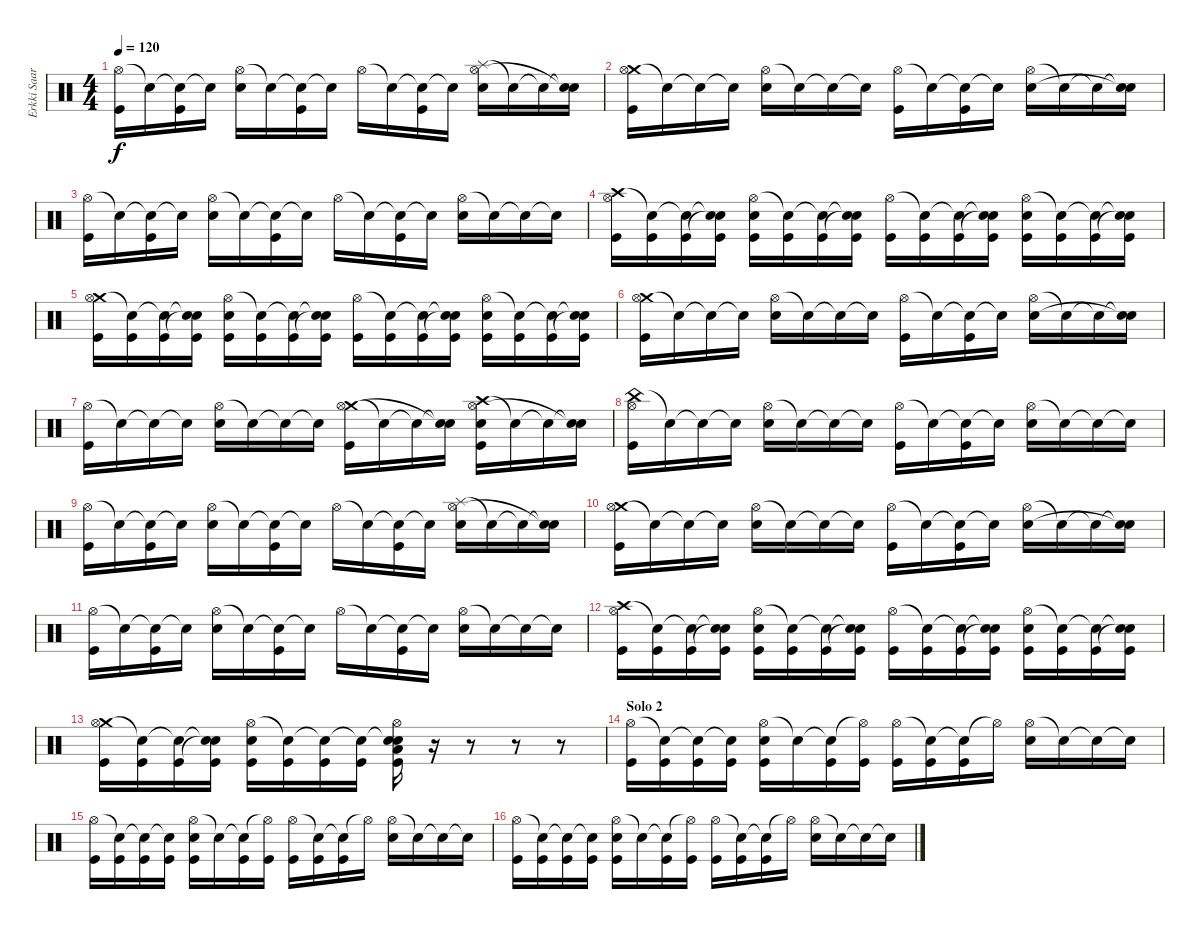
\track ("Erkki Saarinen" "Erkki Saar") {instrument percussion}
\staff {score}
\articulation defaults
\ts (4 4)
\tempo 120
\clef neutral
\ks c
("Hi-Hat (open)" "Kick (hit)").16{dy f} "Snare (hit)"{t}.16 ("Snare (hit)"{t} "Kick (hit)").16 "Snare (hit)"{t}.16 ("Hi-Hat (open)" "Snare (hit) 2").16 "Snare (hit)"{t}.16 ("Snare (hit)"{t} "Kick (hit)").16 "Snare (hit)"{t}.16 "Hi-Hat (open)".16 "Snare (hit)"{t}.16 ("Snare (hit)"{t} "Kick (hit)").16 "Snare (hit)"{t}.16 ("Splash (hit)" "Hi-Hat (open)" "Snare (hit) 2").16 "Snare (hit)"{t}.16 "Snare (hit)"{t}.16 ("Snare (hit)"{t} "Snare (hit)"{t}).16 |
("Crash medium (hit)" "Hi-Hat (open)" "Kick (hit)").16 "Snare (hit)"{t}.16 "Snare (hit)"{t}.16 "Snare (hit)"{t}.16 ("Hi-Hat (open)" "Snare (hit) 2").16 "Snare (hit)"{t}.16 "Snare (hit)"{t}.16 "Snare (hit)"{t}.16 ("Hi-Hat (open)" "Kick (hit)").16 "Snare (hit)"{t}.16 ("Snare (hit)"{t} "Kick (hit)").16 "Snare (hit)"{t}.16 ("Hi-Hat (open)" "Snare (hit) 2").16 "Snare (hit)"{t}.16 "Snare (hit)"{t}.16 ("Snare (hit)"{t} "Snare (hit)"{t}).16 |
("Hi-Hat (open)" "Kick (hit)").16 "Snare (hit)"{t}.16 ("Snare (hit)"{t} "Kick (hit)").16 "Snare (hit)"{t}.16 ("Hi-Hat (open)" "Snare (hit) 2").16 "Snare (hit)"{t}.16 ("Snare (hit)"{t} "Kick (hit)").16 "Snare (hit)"{t}.16 "Hi-Hat (open)".16 "Snare (hit)"{t}.16 ("Snare (hit)"{t} "Kick (hit)").16 "Snare (hit)"{t}.16 ("Hi-Hat (open)" "Snare (hit) 2").16 "Snare (hit)"{t}.16 "Snare (hit)"{t}.16 "Snare (hit)"{t}.16 |
("Crash high (hit)" "Hi-Hat (open)" "Kick (hit)").16 ("Snare (hit)"{t} "Kick (hit)").16 ("Snare (hit)"{t} "Kick (hit)").16 ("Snare (hit)"{t} "Snare (hit)"{t} "Kick (hit)").16 ("Hi-Hat (open)" "Snare (hit) 2" "Kick (hit)").16 ("Snare (hit)"{t} "Kick (hit)").16 ("Snare (hit)"{t} "Kick (hit)").16 ("Snare (hit)"{t} "Snare (hit)"{t} "Kick (hit)").16 ("Hi-Hat (open)" "Kick (hit)").16 ("Snare (hit)"{t} "Kick (hit)").16 ("Snare (hit)"{t} "Kick (hit)").16 ("Snare (hit)"{t} "Snare (hit)"{t} "Kick (hit)").16 ("Hi-Hat (open)" "Snare (hit) 2" "Kick (hit)").16 ("Snare (hit)"{t} "Kick (hit)").16 ("Snare (hit)"{t} "Kick (hit)").16 ("Snare (hit)"{t} "Snare (hit)"{t} "Kick (hit)").16 |
("Crash medium (hit)" "Hi-Hat (open)" "Kick (hit)").16 ("Snare (hit)"{t} "Kick (hit)").16 ("Snare (hit)"{t} "Kick (hit)").16 ("Snare (hit)"{t} "Snare (hit)"{t} "Kick (hit)").16 ("Hi-Hat (open)" "Snare (hit) 2" "Kick (hit)").16 ("Snare (hit)"{t} "Kick (hit)").16 ("Snare (hit)"{t} "Kick (hit)").16 ("Snare (hit)"{t} "Snare (hit)"{t} "Kick (hit)").16 ("Hi-Hat (open)" "Kick (hit)").16 ("Snare (hit)"{t} "Kick (hit)").16 ("Snare (hit)"{t} "Kick (hit)").16 ("Snare (hit)"{t} "Snare (hit)"{t} "Kick (hit)").16 ("Hi-Hat (open)" "Snare (hit) 2" "Kick (hit)").16 ("Snare (hit)"{t} "Kick (hit)").16 ("Snare (hit)"{t} "Kick (hit)").16 ("Snare (hit)"{t} "Snare (hit)"{t} "Kick (hit)").16 |
("Crash medium (hit)" "Hi-Hat (open)" "Kick (hit)").16 "Snare (hit)"{t}.16 "Snare (hit)"{t}.16 "Snare (hit)"{t}.16 ("Hi-Hat (open)" "Snare (hit) 2").16 "Snare (hit)"{t}.16 "Snare (hit)"{t}.16 "Snare (hit)"{t}.16 ("Hi-Hat (open)" "Kick (hit)").16 "Snare (hit)"{t}.16 ("Snare (hit)"{t} "Kick (hit)").16 "Snare (hit)"{t}.16 ("Hi-Hat (open)" "Snare (hit) 2").16 "Snare (hit)"{t}.16 "Snare (hit)"{t}.16 ("Snare (hit)"{t} "Snare (hit)"{t}).16 |
("Hi-Hat (open)" "Kick (hit)").16 "Snare (hit)"{t}.16 "Snare (hit)"{t}.16 "Snare (hit)"{t}.16 ("Hi-Hat (open)" "Snare (hit) 2").16 "Snare (hit)"{t}.16 "Snare (hit)"{t}.16 "Snare (hit)"{t}.16 ("Crash medium (hit)" "Hi-Hat (open)" "Kick (hit)").16 "Snare (hit)"{t}.16 "Snare (hit)"{t}.16 ("Snare (hit)"{t} "Snare (hit)"{t}).16 ("Crash high (hit)" "Hi-Hat (open)" "Snare (hit) 2" "Kick (hit)").16 "Snare (hit)"{t}.16 "Snare (hit)"{t}.16 ("Snare (hit)"{t} "Snare (hit)"{t}).16 |
("China (hit)" "Hi-Hat (open)" "Kick (hit)").16 "Snare (hit)"{t}.16 "Snare (hit)"{t}.16 "Snare (hit)"{t}.16 ("Hi-Hat (open)" "Snare (hit) 2").16 "Snare (hit)"{t}.16 "Snare (hit)"{t}.16 "Snare (hit)"{t}.16 ("Hi-Hat (open)" "Kick (hit)").16 "Snare (hit)"{t}.16 ("Snare (hit)"{t} "Kick (hit)").16 "Snare (hit)"{t}.16 ("Hi-Hat (open)" "Snare (hit) 2").16 "Snare (hit)"{t}.16 "Snare (hit)"{t}.16 "Snare (hit)"{t}.16 |
("Hi-Hat (open)" "Kick (hit)").16 "Snare (hit)"{t}.16 ("Snare (hit)"{t} "Kick (hit)").16 "Snare (hit)"{t}.16 ("Hi-Hat (open)" "Snare (hit) 2").16 "Snare (hit)"{t}.16 ("Snare (hit)"{t} "Kick (hit)").16 "Snare (hit)"{t}.16 "Hi-Hat (open)".16 "Snare (hit)"{t}.16 ("Snare (hit)"{t} "Kick (hit)").16 "Snare (hit)"{t}.16 ("Splash (hit)" "Hi-Hat (open)" "Snare (hit) 2").16 "Snare (hit)"{t}.16 "Snare (hit)"{t}.16 ("Snare (hit)"{t} "Snare (hit)"{t}).16 |
("Crash medium (hit)" "Hi-Hat (open)" "Kick (hit)").16 "Snare (hit)"{t}.16 "Snare (hit)"{t}.16 "Snare (hit)"{t}.16 ("Hi-Hat (open)" "Snare (hit) 2").16 "Snare (hit)"{t}.16 "Snare (hit)"{t}.16 "Snare (hit)"{t}.16 ("Hi-Hat (open)" "Kick (hit)").16 "Snare (hit)"{t}.16 ("Snare (hit)"{t} "Kick (hit)").16 "Snare (hit)"{t}.16 ("Hi-Hat (open)" "Snare (hit) 2").16 "Snare (hit)"{t}.16 "Snare (hit)"{t}.16 ("Snare (hit)"{t} "Snare (hit)"{t}).16 |
("Hi-Hat (open)" "Kick (hit)").16 "Snare (hit)"{t}.16 ("Snare (hit)"{t} "Kick (hit)").16 "Snare (hit)"{t}.16 ("Hi-Hat (open)" "Snare (hit) 2").16 "Snare (hit)"{t}.16 ("Snare (hit)"{t} "Kick (hit)").16 "Snare (hit)"{t}.16 "Hi-Hat (open)".16 "Snare (hit)"{t}.16 ("Snare (hit)"{t} "Kick (hit)").16 "Snare (hit)"{t}.16 ("Hi-Hat (open)" "Snare (hit) 2").16 "Snare (hit)"{t}.16 "Snare (hit)"{t}.16 "Snare (hit)"{t}.16 |
("Crash high (hit)" "Hi-Hat (open)" "Kick (hit)").16 ("Snare (hit)"{t} "Kick (hit)").16 ("Snare (hit)"{t} "Kick (hit)").16 ("Snare (hit)"{t} "Snare (hit)"{t} "Kick (hit)").16 ("Hi-Hat (open)" "Snare (hit) 2" "Kick (hit)").16 ("Snare (hit)"{t} "Kick (hit)").16 ("Snare (hit)"{t} "Kick (hit)").16 ("Snare (hit)"{t} "Snare (hit)"{t} "Kick (hit)").16 ("Hi-Hat (open)" "Kick (hit)").16 ("Snare (hit)"{t} "Kick (hit)").16 ("Snare (hit)"{t} "Kick (hit)").16 ("Snare (hit)"{t} "Snare (hit)"{t} "Kick (hit)").16 ("Hi-Hat (open)" "Snare (hit) 2" "Kick (hit)").16 ("Snare (hit)"{t} "Kick (hit)").16 ("Snare (hit)"{t} "Kick (hit)").16 ("Snare (hit)"{t} "Snare (hit)"{t} "Kick (hit)").16 |
("Crash medium (hit)" "Hi-Hat (open)" "Kick (hit)").16 ("Snare (hit)"{t} "Kick (hit)").16 ("Snare (hit)"{t} "Kick (hit)").16 ("Snare (hit)"{t} "Snare (hit)"{t} "Kick (hit)").16 ("Hi-Hat (open)" "Snare (hit) 2" "Kick (hit)").16 ("Snare (hit)"{t} "Kick (hit)").16 ("Snare (hit)"{t} "Kick (hit)").16 ("Snare (hit)"{t} "Kick (hit)").16 ("Snare (hit)"{t} "Hi-Hat (open)" "Low Tom (hit)" "Snare (hit) 2" "Kick (hit)").16 r.16 r.8 r.8 r.8 |
\section ("" "Solo 2")
("Hi-Hat (open)" "Kick (hit)").16 ("Snare (hit)"{t} "Kick (hit)").16 ("Snare (hit)"{t} "Kick (hit)").16 ("Snare (hit)"{t} "Kick (hit)").16 ("Hi-Hat (open)" "Snare (hit) 2" "Kick (hit)").16 "Snare (hit)"{t}.16 ("Snare (hit)"{t} "Kick (hit)").16 ("Hi-Hat (open)"{t} "Kick (hit)").16 ("Hi-Hat (open)" "Kick (hit)").16 ("Snare (hit)"{t} "Kick (hit)").16 ("Snare (hit)"{t} "Kick (hit)").16 "Hi-Hat (open)"{t}.16 ("Hi-Hat (open)" "Snare (hit) 2").16 "Snare (hit)"{t}.16 "Snare (hit)"{t}.16 "Snare (hit)"{t}.16 |
("Hi-Hat (open)" "Kick (hit)").16 ("Snare (hit)"{t} "Kick (hit)").16 ("Snare (hit)"{t} "Kick (hit)").16 ("Snare (hit)"{t} "Kick (hit)").16 ("Hi-Hat (open)" "Snare (hit) 2" "Kick (hit)").16 "Snare (hit)"{t}.16 ("Snare (hit)"{t} "Kick (hit)").16 ("Hi-Hat (open)"{t} "Kick (hit)").16 ("Hi-Hat (open)" "Kick (hit)").16 ("Snare (hit)"{t} "Kick (hit)").16 ("Snare (hit)"{t} "Kick (hit)").16 "Hi-Hat (open)"{t}.16 ("Hi-Hat (open)" "Snare (hit) 2").16 "Snare (hit)"{t}.16 "Snare (hit)"{t}.16 "Snare (hit)"{t}.16 |
("Hi-Hat (open)" "Kick (hit)").16 ("Snare (hit)"{t} "Kick (hit)").16 ("Snare (hit)"{t} "Kick (hit)").16 ("Snare (hit)"{t} "Kick (hit)").16 ("Hi-Hat (open)" "Snare (hit) 2" "Kick (hit)").16 "Snare (hit)"{t}.16 ("Snare (hit)"{t} "Kick (hit)").16 ("Hi-Hat (open)"{t} "Kick (hit)").16 ("Hi-Hat (open)" "Kick (hit)").16 ("Snare (hit)"{t} "Kick (hit)").16 ("Snare (hit)"{t} "Kick (hit)").16 "Hi-Hat (open)"{t}.16 ("Hi-Hat (open)" "Snare (hit) 2").16 "Snare (hit)"{t}.16 "Snare (hit)"{t}.16 "Snare (hit)"{t}.16
